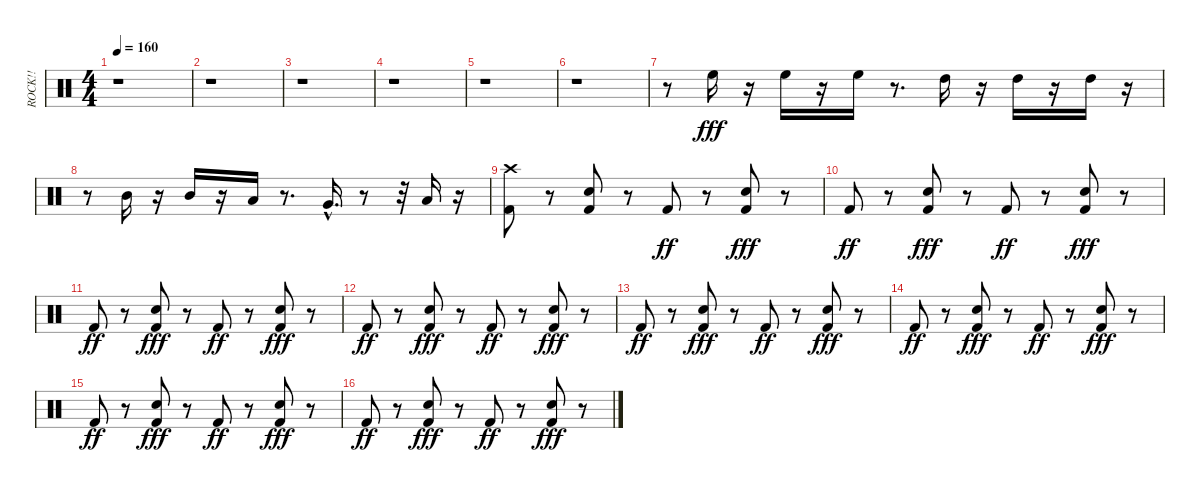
\track ("ROCK!!" "ROCK!!") {instrument percussion}
\staff {score}
\articulation defaults
\ts (4 4)
\tempo 160
\clef neutral
\ks c
r.1{dy fff} |
r.1 |
r.1 |
r.1 |
r.1 |
r.1 |
r.8 "High Floor Tom (hit)".16 r.16 "High Floor Tom (hit)".16 r.16 "High Floor Tom (hit)".16 r.8{d} "High Tom (hit)".16 r.16 "High Tom (hit)".16 r.16 "High Tom (hit)".16 r.16 |
r.8 "Mid Tom (hit)".16 r.16 "Mid Tom (hit)".16 r.16 "Low Tom (hit)".16 r.8{d} "Very Low Tom (hit)"{hac}.16{d} r.8 r.32 "Low Floor Tom (hit)".16 r.16 |
("Kick (hit) 2" "Crash high (hit)").8 r.8 ("Kick (hit) 2" "Electric Snare (hit)").8 r.8 "Kick (hit) 2".8{dy ff} r.8 ("Kick (hit) 2" "Electric Snare (hit)").8{dy fff} r.8 |
"Kick (hit) 2".8{dy ff} r.8 ("Kick (hit) 2" "Electric Snare (hit)").8{dy fff} r.8 "Kick (hit) 2".8{dy ff} r.8 ("Kick (hit) 2" "Electric Snare (hit)").8{dy fff} r.8 |
"Kick (hit) 2".8{dy ff} r.8 ("Kick (hit) 2" "Electric Snare (hit)").8{dy fff} r.8 "Kick (hit) 2".8{dy ff} r.8 ("Kick (hit) 2" "Electric Snare (hit)").8{dy fff} r.8 |
"Kick (hit) 2".8{dy ff} r.8 ("Kick (hit) 2" "Electric Snare (hit)").8{dy fff} r.8 "Kick (hit) 2".8{dy ff} r.8 ("Kick (hit) 2" "Electric Snare (hit)").8{dy fff} r.8 |
"Kick (hit) 2".8{dy ff} r.8 ("Kick (hit) 2" "Electric Snare (hit)").8{dy fff} r.8 "Kick (hit) 2".8{dy ff} r.8 ("Kick (hit) 2" "Electric Snare (hit)").8{dy fff} r.8 |
"Kick (hit) 2".8{dy ff} r.8 ("Kick (hit) 2" "Electric Snare (hit)").8{dy fff} r.8 "Kick (hit) 2".8{dy ff} r.8 ("Kick (hit) 2" "Electric Snare (hit)").8{dy fff} r.8 |
"Kick (hit) 2".8{dy ff} r.8 ("Kick (hit) 2" "Electric Snare (hit)").8{dy fff} r.8 "Kick (hit) 2".8{dy ff} r.8 ("Kick (hit) 2" "Electric Snare (hit)").8{dy fff} r.8 |
"Kick (hit) 2".8{dy ff} r.8 ("Kick (hit) 2" "Electric Snare (hit)").8{dy fff} r.8 "Kick (hit) 2".8{dy ff} r.8 ("Kick (hit) 2" "Electric Snare (hit)").8{dy fff} r.8
